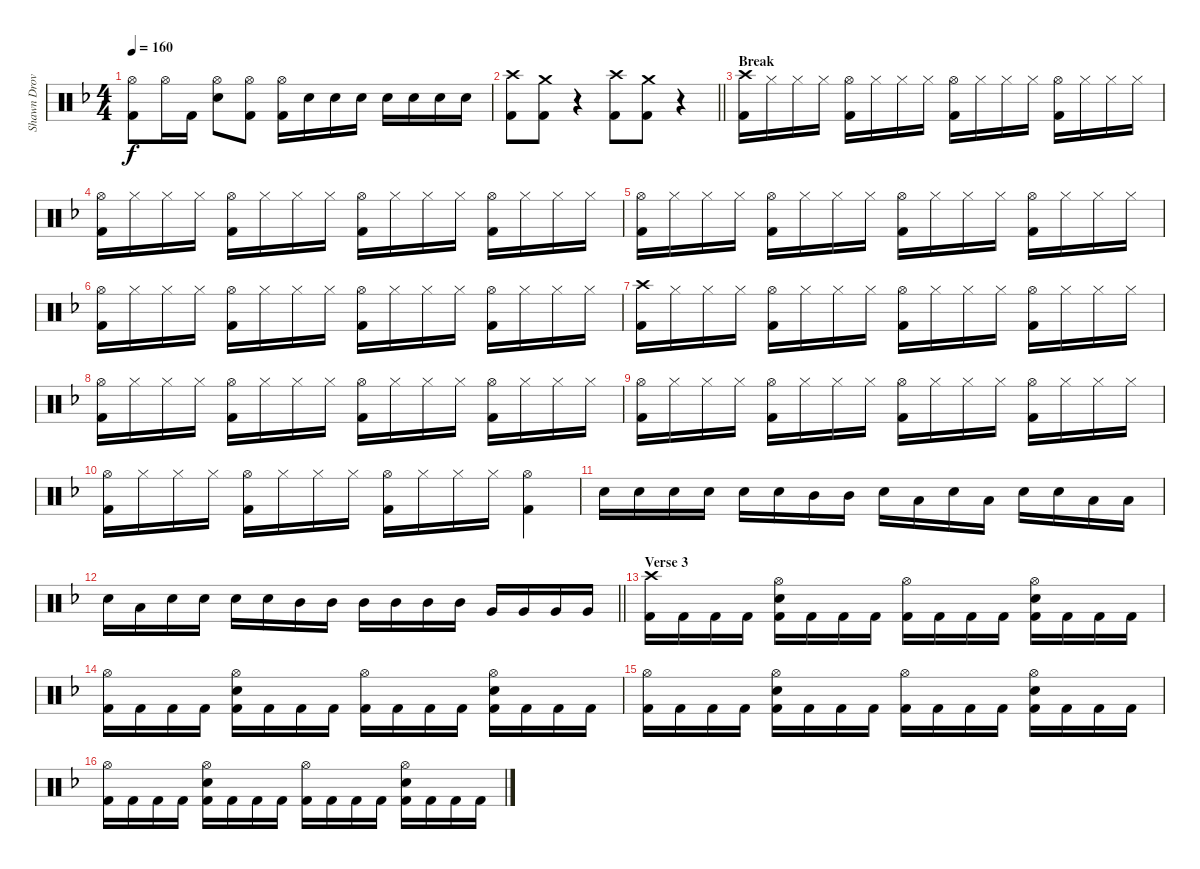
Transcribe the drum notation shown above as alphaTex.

\track ("Shawn Drover - Drums" "Shawn Drov") {instrument percussion}
\staff {score}
\articulation defaults
\ts (4 4)
\tempo 160
\clef neutral
\ks f
("Hi-Hat (open)" "Kick (hit) 2").8{dy f} "Hi-Hat (open)".16 "Kick (hit) 2".16 ("Snare (hit) 2" "Hi-Hat (open)").8 ("Hi-Hat (open)" "Kick (hit) 2").8 ("Hi-Hat (open)" "Kick (hit) 2").16 "Snare (hit) 2".16 "Snare (hit) 2".16 "Snare (hit) 2".16 "Snare (hit) 2".16 "Snare (hit) 2".16 "Snare (hit) 2".16 "Snare (hit) 2".16 |
\barLineRight lightlight
("Crash high (hit)" "Kick (hit) 2").8 ("Crash medium (hit)" "Kick (hit) 2").8 r.4 ("Crash high (hit)" "Kick (hit) 2").8 ("Crash medium (hit)" "Kick (hit) 2").8 r.4 |
\section ("" "Break")
("Crash high (hit)" "Kick (hit) 2").16 "Hi-Hat (closed)".16 "Hi-Hat (closed)".16 "Hi-Hat (closed)".16 ("Hi-Hat (open)" "Kick (hit) 2").16 "Hi-Hat (closed)".16 "Hi-Hat (closed)".16 "Hi-Hat (closed)".16 ("Hi-Hat (open)" "Kick (hit) 2").16 "Hi-Hat (closed)".16 "Hi-Hat (closed)".16 "Hi-Hat (closed)".16 ("Hi-Hat (open)" "Kick (hit) 2").16 "Hi-Hat (closed)".16 "Hi-Hat (closed)".16 "Hi-Hat (closed)".16 |
("Hi-Hat (open)" "Kick (hit) 2").16 "Hi-Hat (closed)".16 "Hi-Hat (closed)".16 "Hi-Hat (closed)".16 ("Hi-Hat (open)" "Kick (hit) 2").16 "Hi-Hat (closed)".16 "Hi-Hat (closed)".16 "Hi-Hat (closed)".16 ("Hi-Hat (open)" "Kick (hit) 2").16 "Hi-Hat (closed)".16 "Hi-Hat (closed)".16 "Hi-Hat (closed)".16 ("Hi-Hat (open)" "Kick (hit) 2").16 "Hi-Hat (closed)".16 "Hi-Hat (closed)".16 "Hi-Hat (closed)".16 |
("Hi-Hat (open)" "Kick (hit) 2").16 "Hi-Hat (closed)".16 "Hi-Hat (closed)".16 "Hi-Hat (closed)".16 ("Hi-Hat (open)" "Kick (hit) 2").16 "Hi-Hat (closed)".16 "Hi-Hat (closed)".16 "Hi-Hat (closed)".16 ("Hi-Hat (open)" "Kick (hit) 2").16 "Hi-Hat (closed)".16 "Hi-Hat (closed)".16 "Hi-Hat (closed)".16 ("Hi-Hat (open)" "Kick (hit) 2").16 "Hi-Hat (closed)".16 "Hi-Hat (closed)".16 "Hi-Hat (closed)".16 |
("Hi-Hat (open)" "Kick (hit) 2").16 "Hi-Hat (closed)".16 "Hi-Hat (closed)".16 "Hi-Hat (closed)".16 ("Hi-Hat (open)" "Kick (hit) 2").16 "Hi-Hat (closed)".16 "Hi-Hat (closed)".16 "Hi-Hat (closed)".16 ("Hi-Hat (open)" "Kick (hit) 2").16 "Hi-Hat (closed)".16 "Hi-Hat (closed)".16 "Hi-Hat (closed)".16 ("Hi-Hat (open)" "Kick (hit) 2").16 "Hi-Hat (closed)".16 "Hi-Hat (closed)".16 "Hi-Hat (closed)".16 |
("Crash high (hit)" "Kick (hit) 2").16 "Hi-Hat (closed)".16 "Hi-Hat (closed)".16 "Hi-Hat (closed)".16 ("Hi-Hat (open)" "Kick (hit) 2").16 "Hi-Hat (closed)".16 "Hi-Hat (closed)".16 "Hi-Hat (closed)".16 ("Hi-Hat (open)" "Kick (hit) 2").16 "Hi-Hat (closed)".16 "Hi-Hat (closed)".16 "Hi-Hat (closed)".16 ("Hi-Hat (open)" "Kick (hit) 2").16 "Hi-Hat (closed)".16 "Hi-Hat (closed)".16 "Hi-Hat (closed)".16 |
("Hi-Hat (open)" "Kick (hit) 2").16 "Hi-Hat (closed)".16 "Hi-Hat (closed)".16 "Hi-Hat (closed)".16 ("Hi-Hat (open)" "Kick (hit) 2").16 "Hi-Hat (closed)".16 "Hi-Hat (closed)".16 "Hi-Hat (closed)".16 ("Hi-Hat (open)" "Kick (hit) 2").16 "Hi-Hat (closed)".16 "Hi-Hat (closed)".16 "Hi-Hat (closed)".16 ("Hi-Hat (open)" "Kick (hit) 2").16 "Hi-Hat (closed)".16 "Hi-Hat (closed)".16 "Hi-Hat (closed)".16 |
("Hi-Hat (open)" "Kick (hit) 2").16 "Hi-Hat (closed)".16 "Hi-Hat (closed)".16 "Hi-Hat (closed)".16 ("Hi-Hat (open)" "Kick (hit) 2").16 "Hi-Hat (closed)".16 "Hi-Hat (closed)".16 "Hi-Hat (closed)".16 ("Hi-Hat (open)" "Kick (hit) 2").16 "Hi-Hat (closed)".16 "Hi-Hat (closed)".16 "Hi-Hat (closed)".16 ("Hi-Hat (open)" "Kick (hit) 2").16 "Hi-Hat (closed)".16 "Hi-Hat (closed)".16 "Hi-Hat (closed)".16 |
("Hi-Hat (open)" "Kick (hit) 2").16 "Hi-Hat (closed)".16 "Hi-Hat (closed)".16 "Hi-Hat (closed)".16 ("Hi-Hat (open)" "Kick (hit) 2").16 "Hi-Hat (closed)".16 "Hi-Hat (closed)".16 "Hi-Hat (closed)".16 ("Hi-Hat (open)" "Kick (hit) 2").16 "Hi-Hat (closed)".16 "Hi-Hat (closed)".16 "Hi-Hat (closed)".16 ("Hi-Hat (open)" "Kick (hit) 2").4 |
"Snare (hit) 2".16 "Snare (hit) 2".16 "Snare (hit) 2".16 "Snare (hit) 2".16 "Snare (hit) 2".16 "Snare (hit) 2".16 "Mid Tom (hit)".16 "Mid Tom (hit)".16 "Snare (hit) 2".16 "Low Tom (hit)".16 "Snare (hit) 2".16 "Low Tom (hit)".16 "Snare (hit) 2".16 "Snare (hit) 2".16 "Low Tom (hit)".16 "Low Tom (hit)".16 |
\barLineRight lightlight "Snare (hit) 2".16 "Low Tom (hit)".16 "Snare (hit) 2".16 "Snare (hit) 2".16 "Snare (hit) 2".16 "Snare (hit) 2".16 "Mid Tom (hit)".16 "Mid Tom (hit)".16 "Mid Tom (hit)".16 "Mid Tom (hit)".16 "Mid Tom (hit)".16 "Mid Tom (hit)".16 "Very Low Tom (hit)".16 "Very Low Tom (hit)".16 "Very Low Tom (hit)".16 "Very Low Tom (hit)".16
|
\section ("" "Verse 3")
("Crash high (hit)" "Kick (hit) 2").16 "Kick (hit) 2".16 "Kick (hit) 2".16 "Kick (hit) 2".16 ("Snare (hit) 2" "Hi-Hat (open)" "Kick (hit) 2").16 "Kick (hit) 2".16 "Kick (hit) 2".16 "Kick (hit) 2".16 ("Hi-Hat (open)" "Kick (hit) 2").16 "Kick (hit) 2".16 "Kick (hit) 2".16 "Kick (hit) 2".16 ("Snare (hit) 2" "Hi-Hat (open)" "Kick (hit) 2").16 "Kick (hit) 2".16 "Kick (hit) 2".16 "Kick (hit) 2".16 |
("Hi-Hat (open)" "Kick (hit) 2").16 "Kick (hit) 2".16 "Kick (hit) 2".16 "Kick (hit) 2".16 ("Snare (hit) 2" "Hi-Hat (open)" "Kick (hit) 2").16 "Kick (hit) 2".16 "Kick (hit) 2".16 "Kick (hit) 2".16 ("Hi-Hat (open)" "Kick (hit) 2").16 "Kick (hit) 2".16 "Kick (hit) 2".16 "Kick (hit) 2".16 ("Snare (hit) 2" "Hi-Hat (open)" "Kick (hit) 2").16 "Kick (hit) 2".16 "Kick (hit) 2".16 "Kick (hit) 2".16 |
("Hi-Hat (open)" "Kick (hit) 2").16 "Kick (hit) 2".16 "Kick (hit) 2".16 "Kick (hit) 2".16 ("Snare (hit) 2" "Hi-Hat (open)" "Kick (hit) 2").16 "Kick (hit) 2".16 "Kick (hit) 2".16 "Kick (hit) 2".16 ("Hi-Hat (open)" "Kick (hit) 2").16 "Kick (hit) 2".16 "Kick (hit) 2".16 "Kick (hit) 2".16 ("Snare (hit) 2" "Hi-Hat (open)" "Kick (hit) 2").16 "Kick (hit) 2".16 "Kick (hit) 2".16 "Kick (hit) 2".16 |
("Hi-Hat (open)" "Kick (hit) 2").16 "Kick (hit) 2".16 "Kick (hit) 2".16 "Kick (hit) 2".16 ("Snare (hit) 2" "Hi-Hat (open)" "Kick (hit) 2").16 "Kick (hit) 2".16 "Kick (hit) 2".16 "Kick (hit) 2".16 ("Hi-Hat (open)" "Kick (hit) 2").16 "Kick (hit) 2".16 "Kick (hit) 2".16 "Kick (hit) 2".16 ("Snare (hit) 2" "Hi-Hat (open)" "Kick (hit) 2").16 "Kick (hit) 2".16 "Kick (hit) 2".16 "Kick (hit) 2".16
